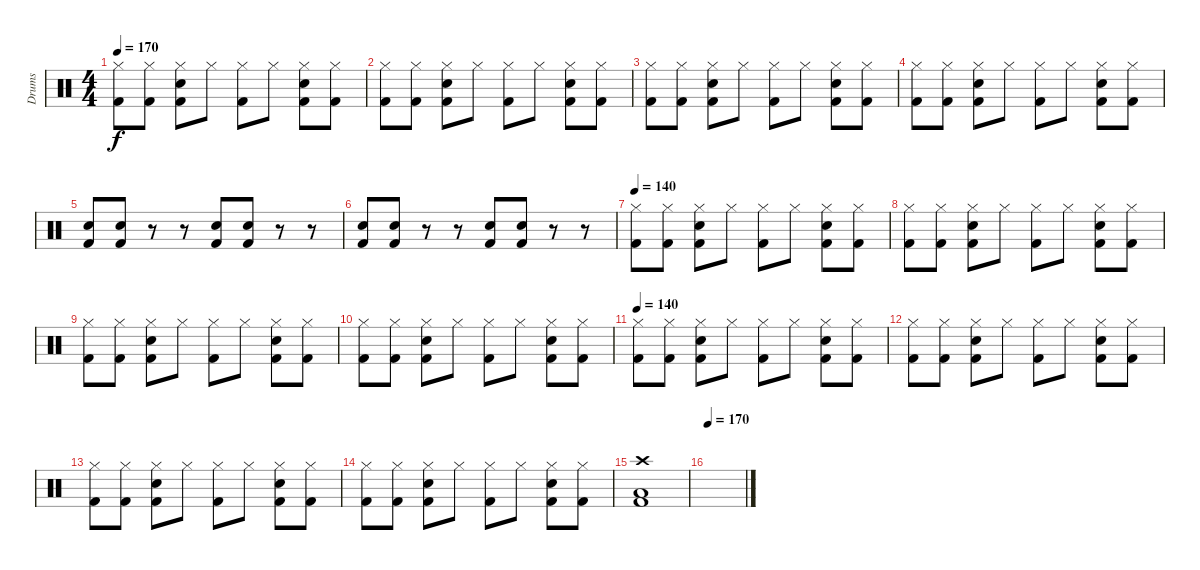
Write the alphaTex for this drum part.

\track ("Drums" "Drums") {instrument percussion}
\staff {score}
\articulation defaults
\ts (4 4)
\tempo 170
\clef neutral
\ks c
("Hi-Hat (closed)" "Kick (hit) 2").8{dy f} ("Hi-Hat (closed)" "Kick (hit) 2").8 ("Hi-Hat (closed)" "Electric Snare (hit)" "Kick (hit) 2").8 "Hi-Hat (closed)".8 ("Hi-Hat (closed)" "Kick (hit) 2").8 "Hi-Hat (closed)".8 ("Hi-Hat (closed)" "Electric Snare (hit)" "Kick (hit) 2").8 ("Hi-Hat (closed)" "Kick (hit) 2").8 |
("Hi-Hat (closed)" "Kick (hit) 2").8 ("Hi-Hat (closed)" "Kick (hit) 2").8 ("Hi-Hat (closed)" "Electric Snare (hit)" "Kick (hit) 2").8 "Hi-Hat (closed)".8 ("Hi-Hat (closed)" "Kick (hit) 2").8 "Hi-Hat (closed)".8 ("Hi-Hat (closed)" "Electric Snare (hit)" "Kick (hit) 2").8 ("Hi-Hat (closed)" "Kick (hit) 2").8 |
("Hi-Hat (closed)" "Kick (hit) 2").8 ("Hi-Hat (closed)" "Kick (hit) 2").8 ("Hi-Hat (closed)" "Electric Snare (hit)" "Kick (hit) 2").8 "Hi-Hat (closed)".8 ("Hi-Hat (closed)" "Kick (hit) 2").8 "Hi-Hat (closed)".8 ("Hi-Hat (closed)" "Electric Snare (hit)" "Kick (hit) 2").8 ("Hi-Hat (closed)" "Kick (hit) 2").8 |
("Hi-Hat (closed)" "Kick (hit) 2").8 ("Hi-Hat (closed)" "Kick (hit) 2").8 ("Hi-Hat (closed)" "Electric Snare (hit)" "Kick (hit) 2").8 "Hi-Hat (closed)".8 ("Hi-Hat (closed)" "Kick (hit) 2").8 "Hi-Hat (closed)".8 ("Hi-Hat (closed)" "Electric Snare (hit)" "Kick (hit) 2").8 ("Hi-Hat (closed)" "Kick (hit) 2").8 |
("Electric Snare (hit)" "Kick (hit) 2").8 ("Electric Snare (hit)" "Kick (hit) 2").8 r.8 r.8 ("Electric Snare (hit)" "Kick (hit) 2").8 ("Electric Snare (hit)" "Kick (hit) 2").8 r.8 r.8 |
("Electric Snare (hit)" "Kick (hit) 2").8 ("Electric Snare (hit)" "Kick (hit) 2").8 r.8 r.8 ("Electric Snare (hit)" "Kick (hit) 2").8 ("Electric Snare (hit)" "Kick (hit) 2").8 r.8 r.8 |
\tempo 140
("Hi-Hat (closed)" "Kick (hit) 2").8 ("Hi-Hat (closed)" "Kick (hit) 2").8 ("Hi-Hat (closed)" "Electric Snare (hit)" "Kick (hit) 2").8 "Hi-Hat (closed)".8 ("Hi-Hat (closed)" "Kick (hit) 2").8 "Hi-Hat (closed)".8 ("Hi-Hat (closed)" "Electric Snare (hit)" "Kick (hit) 2").8 ("Hi-Hat (closed)" "Kick (hit) 2").8 |
("Hi-Hat (closed)" "Kick (hit) 2").8 ("Hi-Hat (closed)" "Kick (hit) 2").8 ("Hi-Hat (closed)" "Electric Snare (hit)" "Kick (hit) 2").8 "Hi-Hat (closed)".8 ("Hi-Hat (closed)" "Kick (hit) 2").8 "Hi-Hat (closed)".8 ("Hi-Hat (closed)" "Electric Snare (hit)" "Kick (hit) 2").8 ("Hi-Hat (closed)" "Kick (hit) 2").8 |
("Hi-Hat (closed)" "Kick (hit) 2").8 ("Hi-Hat (closed)" "Kick (hit) 2").8 ("Hi-Hat (closed)" "Electric Snare (hit)" "Kick (hit) 2").8 "Hi-Hat (closed)".8 ("Hi-Hat (closed)" "Kick (hit) 2").8 "Hi-Hat (closed)".8 ("Hi-Hat (closed)" "Electric Snare (hit)" "Kick (hit) 2").8 ("Hi-Hat (closed)" "Kick (hit) 2").8 |
("Hi-Hat (closed)" "Kick (hit) 2").8 ("Hi-Hat (closed)" "Kick (hit) 2").8 ("Hi-Hat (closed)" "Electric Snare (hit)" "Kick (hit) 2").8 "Hi-Hat (closed)".8 ("Hi-Hat (closed)" "Kick (hit) 2").8 "Hi-Hat (closed)".8 ("Hi-Hat (closed)" "Electric Snare (hit)" "Kick (hit) 2").8 ("Hi-Hat (closed)" "Kick (hit) 2").8 |
\tempo 140
("Hi-Hat (closed)" "Kick (hit) 2").8 ("Hi-Hat (closed)" "Kick (hit) 2").8 ("Hi-Hat (closed)" "Electric Snare (hit)" "Kick (hit) 2").8 "Hi-Hat (closed)".8 ("Hi-Hat (closed)" "Kick (hit) 2").8 "Hi-Hat (closed)".8 ("Hi-Hat (closed)" "Electric Snare (hit)" "Kick (hit) 2").8 ("Hi-Hat (closed)" "Kick (hit) 2").8 |
("Hi-Hat (closed)" "Kick (hit) 2").8 ("Hi-Hat (closed)" "Kick (hit) 2").8 ("Hi-Hat (closed)" "Electric Snare (hit)" "Kick (hit) 2").8 "Hi-Hat (closed)".8 ("Hi-Hat (closed)" "Kick (hit) 2").8 "Hi-Hat (closed)".8 ("Hi-Hat (closed)" "Electric Snare (hit)" "Kick (hit) 2").8 ("Hi-Hat (closed)" "Kick (hit) 2").8 |
("Hi-Hat (closed)" "Kick (hit) 2").8 ("Hi-Hat (closed)" "Kick (hit) 2").8 ("Hi-Hat (closed)" "Electric Snare (hit)" "Kick (hit) 2").8 "Hi-Hat (closed)".8 ("Hi-Hat (closed)" "Kick (hit) 2").8 "Hi-Hat (closed)".8 ("Hi-Hat (closed)" "Electric Snare (hit)" "Kick (hit) 2").8 ("Hi-Hat (closed)" "Kick (hit) 2").8 |
("Hi-Hat (closed)" "Kick (hit) 2").8 ("Hi-Hat (closed)" "Kick (hit) 2").8 ("Hi-Hat (closed)" "Electric Snare (hit)" "Kick (hit) 2").8 "Hi-Hat (closed)".8 ("Hi-Hat (closed)" "Kick (hit) 2").8 "Hi-Hat (closed)".8 ("Hi-Hat (closed)" "Electric Snare (hit)" "Kick (hit) 2").8 ("Hi-Hat (closed)" "Kick (hit) 2").8 |
("Crash high (hit)" "Kick (hit) 2" "Low Floor Tom (hit)").1 |
\tempo 170
